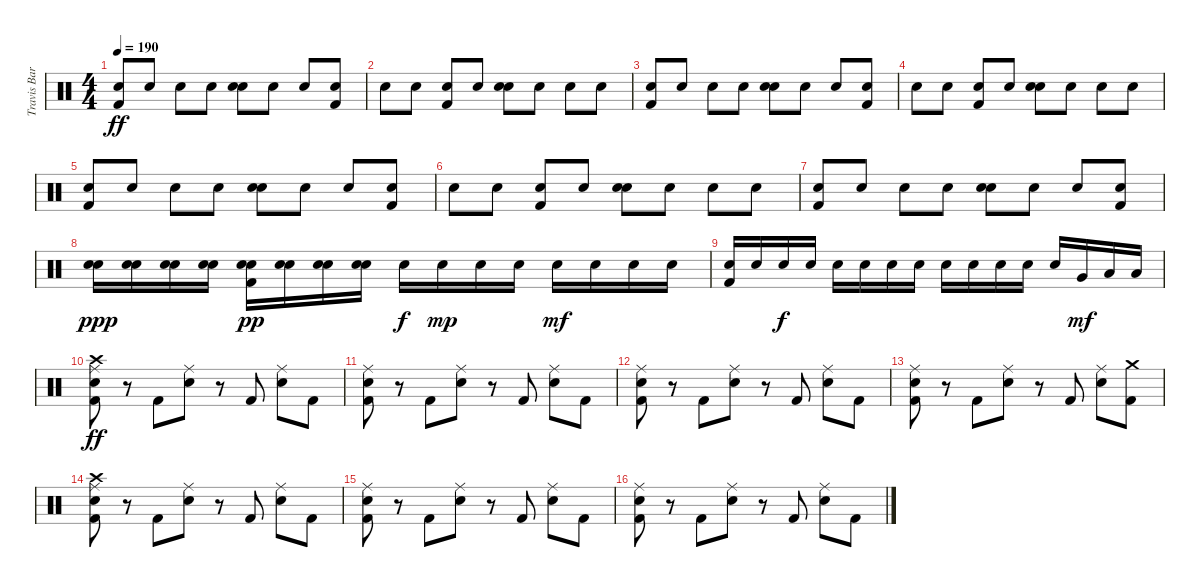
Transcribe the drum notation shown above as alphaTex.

\track ("Travis Barker - Drums" "Travis Bar") {instrument percussion}
\staff {score}
\articulation defaults
\ts (4 4)
\tempo 190
\clef neutral
\ks c
("Snare (hit)" "Kick (hit) 2").8{dy ff} "Snare (hit)".8 "Snare (hit)".8 "Snare (hit)".8 ("Snare (hit)" "Electric Snare (hit)").8 "Snare (hit)".8 "Snare (hit)".8 ("Snare (hit)" "Kick (hit) 2").8 |
"Snare (hit)".8 "Snare (hit)".8 ("Snare (hit)" "Kick (hit) 2").8 "Snare (hit)".8 ("Snare (hit)" "Electric Snare (hit)").8 "Snare (hit)".8 "Snare (hit)".8 "Snare (hit)".8 |
("Snare (hit)" "Kick (hit) 2").8 "Snare (hit)".8 "Snare (hit)".8 "Snare (hit)".8 ("Snare (hit)" "Electric Snare (hit)").8 "Snare (hit)".8 "Snare (hit)".8 ("Snare (hit)" "Kick (hit) 2").8 |
"Snare (hit)".8 "Snare (hit)".8 ("Snare (hit)" "Kick (hit) 2").8 "Snare (hit)".8 ("Snare (hit)" "Electric Snare (hit)").8 "Snare (hit)".8 "Snare (hit)".8 "Snare (hit)".8 |
("Snare (hit)" "Kick (hit) 2").8 "Snare (hit)".8 "Snare (hit)".8 "Snare (hit)".8 ("Snare (hit)" "Electric Snare (hit)").8 "Snare (hit)".8 "Snare (hit)".8 ("Snare (hit)" "Kick (hit) 2").8 |
"Snare (hit)".8 "Snare (hit)".8 ("Snare (hit)" "Kick (hit) 2").8 "Snare (hit)".8 ("Snare (hit)" "Electric Snare (hit)").8 "Snare (hit)".8 "Snare (hit)".8 "Snare (hit)".8 |
("Snare (hit)" "Kick (hit) 2").8 "Snare (hit)".8 "Snare (hit)".8 "Snare (hit)".8 ("Snare (hit)" "Electric Snare (hit)").8 "Snare (hit)".8 "Snare (hit)".8 ("Snare (hit)" "Kick (hit) 2").8 |
("Snare (hit)" "Electric Snare (hit)").16{dy ppp} ("Snare (hit)" "Electric Snare (hit)").16 ("Snare (hit)" "Electric Snare (hit)").16 ("Snare (hit)" "Electric Snare (hit)").16 ("Snare (hit)" "Electric Snare (hit)" "Kick (hit) 2").16{dy pp} ("Snare (hit)" "Electric Snare (hit)").16 ("Snare (hit)" "Electric Snare (hit)").16 ("Snare (hit)" "Electric Snare (hit)").16 "Electric Snare (hit)".16{dy f} "Electric Snare (hit)".16{dy mp} "Electric Snare (hit)".16 "Electric Snare (hit)".16 "Electric Snare (hit)".16{dy mf} "Electric Snare (hit)".16 "Electric Snare (hit)".16 "Electric Snare (hit)".16 |
("Electric Snare (hit)" "Kick (hit) 2").16 "Electric Snare (hit)".16 "Electric Snare (hit)".16{dy f} "Electric Snare (hit)".16 "Electric Snare (hit)".16 "Electric Snare (hit)".16 "Electric Snare (hit)".16 "Electric Snare (hit)".16 "Electric Snare (hit)".16 "Electric Snare (hit)".16 "Electric Snare (hit)".16 "Electric Snare (hit)".16 "Electric Snare (hit)".16 "Very Low Tom (hit)".16{dy mf} "Low Floor Tom (hit)".16 "Low Floor Tom (hit)".16 |
("Crash high (hit)" "Ride (middle)" "Electric Snare (hit)" "Kick (hit) 2").8{dy ff} r.8 "Kick (hit) 2".8 ("Ride (middle)" "Electric Snare (hit)").8 r.8 "Kick (hit) 2".8 ("Ride (middle)" "Electric Snare (hit)").8 "Kick (hit) 2".8 |
("Ride (middle)" "Electric Snare (hit)" "Kick (hit) 2").8 r.8 "Kick (hit) 2".8 ("Ride (middle)" "Electric Snare (hit)").8 r.8 "Kick (hit) 2".8 ("Ride (middle)" "Electric Snare (hit)").8 "Kick (hit) 2".8 |
("Ride (middle)" "Electric Snare (hit)" "Kick (hit) 2").8 r.8 "Kick (hit) 2".8 ("Ride (middle)" "Electric Snare (hit)").8 r.8 "Kick (hit) 2".8 ("Ride (middle)" "Electric Snare (hit)").8 "Kick (hit) 2".8 |
("Ride (middle)" "Electric Snare (hit)" "Kick (hit) 2").8 r.8 "Kick (hit) 2".8 ("Ride (middle)" "Electric Snare (hit)").8 r.8 "Kick (hit) 2".8 ("Ride (middle)" "Electric Snare (hit)").8 ("Crash medium (hit)" "Kick (hit) 2").8 |
("Crash high (hit)" "Ride (middle)" "Electric Snare (hit)" "Kick (hit) 2").8 r.8 "Kick (hit) 2".8 ("Ride (middle)" "Electric Snare (hit)").8 r.8 "Kick (hit) 2".8 ("Ride (middle)" "Electric Snare (hit)").8 "Kick (hit) 2".8 |
("Ride (middle)" "Electric Snare (hit)" "Kick (hit) 2").8 r.8 "Kick (hit) 2".8 ("Ride (middle)" "Electric Snare (hit)").8 r.8 "Kick (hit) 2".8 ("Ride (middle)" "Electric Snare (hit)").8 "Kick (hit) 2".8 |
("Ride (middle)" "Electric Snare (hit)" "Kick (hit) 2").8 r.8 "Kick (hit) 2".8 ("Ride (middle)" "Electric Snare (hit)").8 r.8 "Kick (hit) 2".8 ("Ride (middle)" "Electric Snare (hit)").8 "Kick (hit) 2".8
